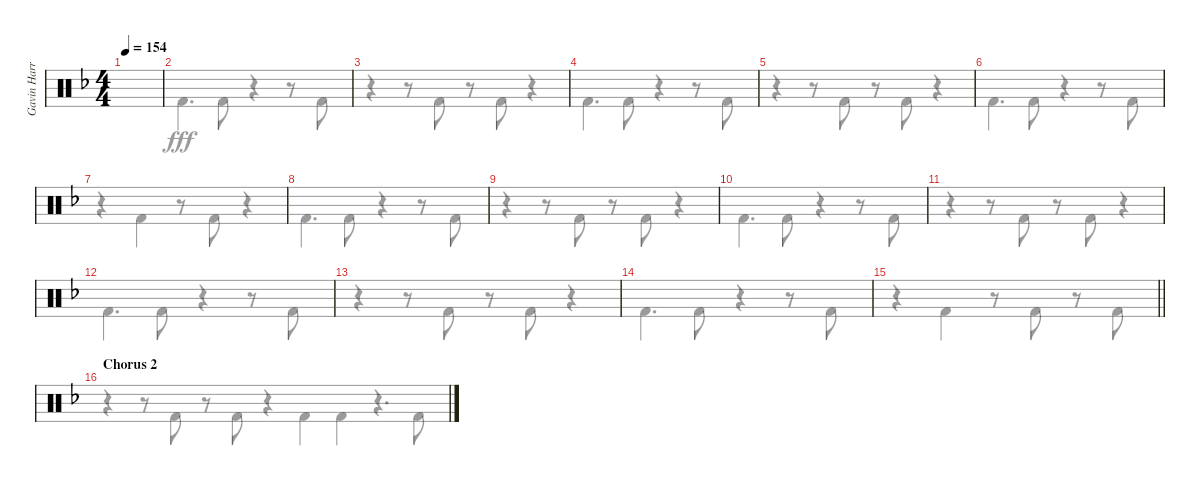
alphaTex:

\track ("Gavin Harrison Bass Pedal" "Gavin Harr") {instrument percussion}
\staff {score}
\articulation defaults
\voice
\ts (4 4)
\tempo 154
\clef neutral
\ks dminor
|
|
|
|
|
|
|
|
|
|
|
|
|
|
\barLineRight lightlight
|
\section ("" "Chorus 2")
\voice
\clef neutral
\ks dminor
r.4{dy fff} r.8 "Kick (hit) 2".8 r.8 "Kick (hit) 2".8 r.4 |
"Kick (hit) 2".4{d} "Kick (hit) 2".8 r.4 r.8 "Kick (hit) 2".8 |
r.4 r.8 "Kick (hit) 2".8 r.8 "Kick (hit) 2".8 r.4 |
"Kick (hit) 2".4{d} "Kick (hit) 2".8 r.4 r.8 "Kick (hit) 2".8 |
r.4 r.8 "Kick (hit) 2".8 r.8 "Kick (hit) 2".8 r.4 |
"Kick (hit) 2".4{d} "Kick (hit) 2".8 r.4 r.8 "Kick (hit) 2".8 |
r.4 "Kick (hit) 2".4 r.8 "Kick (hit) 2".8 r.4 |
"Kick (hit) 2".4{d} "Kick (hit) 2".8 r.4 r.8 "Kick (hit) 2".8 |
r.4 r.8 "Kick (hit) 2".8 r.8 "Kick (hit) 2".8 r.4 |
"Kick (hit) 2".4{d} "Kick (hit) 2".8 r.4 r.8 "Kick (hit) 2".8 |
r.4 r.8 "Kick (hit) 2".8 r.8 "Kick (hit) 2".8 r.4 |
"Kick (hit) 2".4{d} "Kick (hit) 2".8 r.4 r.8 "Kick (hit) 2".8 |
r.4 r.8 "Kick (hit) 2".8 r.8 "Kick (hit) 2".8 r.4 |
"Kick (hit) 2".4{d} "Kick (hit) 2".8 r.4 r.8 "Kick (hit) 2".8 |
\barLineRight lightlight
r.4 "Kick (hit) 2".4 r.8 "Kick (hit) 2".8 r.8 "Kick (hit) 2".8 |
"Kick (hit) 2".4 "Kick (hit) 2".4 r.4{d} "Kick (hit) 2".8
